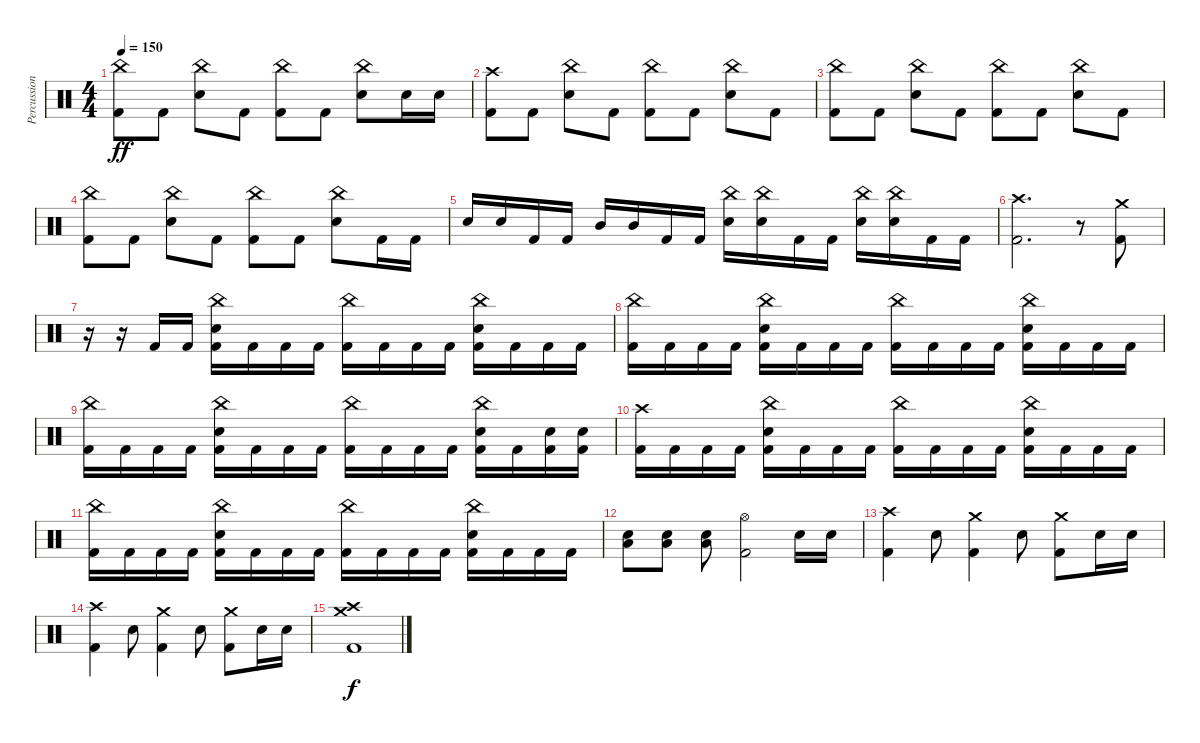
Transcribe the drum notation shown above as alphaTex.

\track ("Percussion" "Percussion") {instrument percussion}
\staff {score}
\articulation defaults
\ts (4 4)
\tempo 150
\clef neutral
\ks c
("China (hit)" "Kick (hit) 2").8{dy ff} "Kick (hit) 2".8 ("China (hit)" "Snare (hit) 2").8 "Kick (hit) 2".8 ("China (hit)" "Kick (hit) 2").8 "Kick (hit) 2".8 ("China (hit)" "Snare (hit) 2").8 "Snare (hit) 2".16 "Snare (hit) 2".16 |
("Crash high (hit)" "Kick (hit) 2").8 "Kick (hit) 2".8 ("China (hit)" "Snare (hit) 2").8 "Kick (hit) 2".8 ("China (hit)" "Kick (hit) 2").8 "Kick (hit) 2".8 ("China (hit)" "Snare (hit) 2").8 "Kick (hit) 2".8 |
("China (hit)" "Kick (hit) 2").8 "Kick (hit) 2".8 ("China (hit)" "Snare (hit) 2").8 "Kick (hit) 2".8 ("China (hit)" "Kick (hit) 2").8 "Kick (hit) 2".8 ("China (hit)" "Snare (hit) 2").8 "Kick (hit) 2".8 |
("China (hit)" "Kick (hit) 2").8 "Kick (hit) 2".8 ("China (hit)" "Snare (hit) 2").8 "Kick (hit) 2".8 ("China (hit)" "Kick (hit) 2").8 "Kick (hit) 2".8 ("China (hit)" "Snare (hit) 2").8 "Kick (hit) 2".16 "Kick (hit) 2".16 |
"Snare (hit) 2".16 "Snare (hit) 2".16 "Kick (hit) 2".16 "Kick (hit) 2".16 "Mid Tom (hit)".16 "Mid Tom (hit)".16 "Kick (hit) 2".16 "Kick (hit) 2".16 ("China (hit)" "Snare (hit) 2").16 ("China (hit)" "Snare (hit) 2").16 "Kick (hit) 2".16 "Kick (hit) 2".16 ("China (hit)" "Snare (hit) 2").16 ("China (hit)" "Snare (hit) 2").16 "Kick (hit) 2".16 "Kick (hit) 2".16 |
("Crash high (hit)" "Kick (hit) 2").2{d} r.8 ("Crash medium (hit)" "Kick (hit) 2").8 |
r.16 r.16 "Kick (hit) 2".16 "Kick (hit) 2".16 ("China (hit)" "Snare (hit) 2" "Kick (hit) 2").16 "Kick (hit) 2".16 "Kick (hit) 2".16 "Kick (hit) 2".16 ("China (hit)" "Kick (hit) 2").16 "Kick (hit) 2".16 "Kick (hit) 2".16 "Kick (hit) 2".16 ("China (hit)" "Snare (hit) 2" "Kick (hit) 2").16 "Kick (hit) 2".16 "Kick (hit) 2".16 "Kick (hit) 2".16 |
("China (hit)" "Kick (hit) 2").16 "Kick (hit) 2".16 "Kick (hit) 2".16 "Kick (hit) 2".16 ("China (hit)" "Snare (hit) 2" "Kick (hit) 2").16 "Kick (hit) 2".16 "Kick (hit) 2".16 "Kick (hit) 2".16 ("China (hit)" "Kick (hit) 2").16 "Kick (hit) 2".16 "Kick (hit) 2".16 "Kick (hit) 2".16 ("China (hit)" "Snare (hit) 2" "Kick (hit) 2").16 "Kick (hit) 2".16 "Kick (hit) 2".16 "Kick (hit) 2".16 |
("China (hit)" "Kick (hit) 2").16 "Kick (hit) 2".16 "Kick (hit) 2".16 "Kick (hit) 2".16 ("China (hit)" "Snare (hit) 2" "Kick (hit) 2").16 "Kick (hit) 2".16 "Kick (hit) 2".16 "Kick (hit) 2".16 ("China (hit)" "Kick (hit) 2").16 "Kick (hit) 2".16 "Kick (hit) 2".16 "Kick (hit) 2".16 ("China (hit)" "Snare (hit) 2" "Kick (hit) 2").16 "Kick (hit) 2".16 ("Snare (hit) 2" "Kick (hit) 2").16 ("Snare (hit) 2" "Kick (hit) 2").16 |
("Crash high (hit)" "Kick (hit) 2").16 "Kick (hit) 2".16 "Kick (hit) 2".16 "Kick (hit) 2".16 ("China (hit)" "Snare (hit) 2" "Kick (hit) 2").16 "Kick (hit) 2".16 "Kick (hit) 2".16 "Kick (hit) 2".16 ("China (hit)" "Kick (hit) 2").16 "Kick (hit) 2".16 "Kick (hit) 2".16 "Kick (hit) 2".16 ("China (hit)" "Snare (hit) 2" "Kick (hit) 2").16 "Kick (hit) 2".16 "Kick (hit) 2".16 "Kick (hit) 2".16 |
("China (hit)" "Kick (hit) 2").16 "Kick (hit) 2".16 "Kick (hit) 2".16 "Kick (hit) 2".16 ("China (hit)" "Snare (hit) 2" "Kick (hit) 2").16 "Kick (hit) 2".16 "Kick (hit) 2".16 "Kick (hit) 2".16 ("China (hit)" "Kick (hit) 2").16 "Kick (hit) 2".16 "Kick (hit) 2".16 "Kick (hit) 2".16 ("China (hit)" "Snare (hit) 2" "Kick (hit) 2").16 "Kick (hit) 2".16 "Kick (hit) 2".16 "Kick (hit) 2".16 |
("Low Tom (hit)" "Snare (hit) 2").8 ("Low Tom (hit)" "Snare (hit) 2").8 ("Low Tom (hit)" "Snare (hit) 2").8 ("Hi-Hat (open)" "Kick (hit) 2").2 "Snare (hit) 2".16 "Snare (hit) 2".16 |
("Crash high (hit)" "Kick (hit) 2").4 "Snare (hit) 2".8 ("Crash medium (hit)" "Kick (hit) 2").4 "Snare (hit) 2".8 ("Crash medium (hit)" "Kick (hit) 2").8 "Snare (hit) 2".16 "Snare (hit) 2".16 |
("Crash high (hit)" "Kick (hit) 2").4 "Snare (hit) 2".8 ("Crash medium (hit)" "Kick (hit) 2").4 "Snare (hit) 2".8 ("Crash medium (hit)" "Kick (hit) 2").8 "Snare (hit) 2".16 "Snare (hit) 2".16 |
("Crash medium (hit)" "Crash high (hit)" "Kick (hit) 2").1{dy f}
